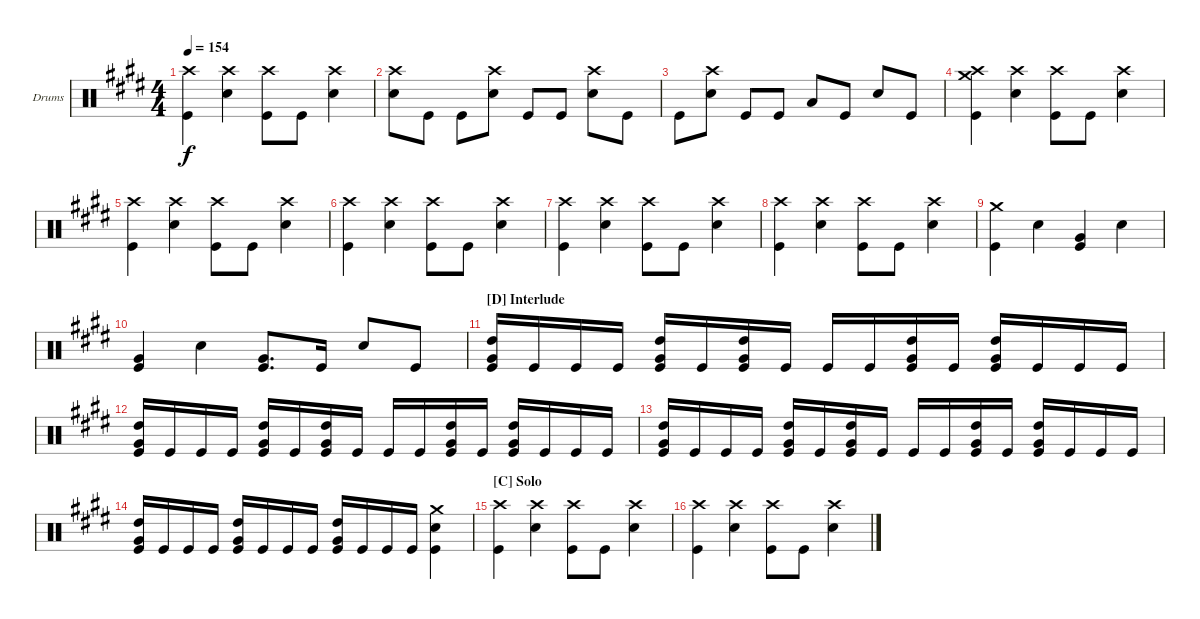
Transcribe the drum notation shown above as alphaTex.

\defaultSystemsLayout 4
\bracketExtendMode groupsimilarinstruments
\firstSystemTrackNameOrientation horizontal
\otherSystemsTrackNameOrientation horizontal
\track ("Jon Larsen" "Drums") {instrument percussion}
\staff {score}
\articulation defaults
\ts (4 4)
\tempo 154
\clef neutral
\scale
0.333333
\ks e
("Crash high (hit)" "Kick (hit)").4{dy f} ("Crash high (hit)" "Snare (hit) 2").4 ("Crash high (hit)" "Kick (hit)").8 "Kick (hit)".8 ("Crash high (hit)" "Snare (hit) 2").4 |
\scale
0.333333 ("Crash high (hit)" "Snare (hit) 2").8 "Kick (hit)".8 "Kick (hit)".8 ("Crash high (hit)" "Snare (hit) 2").8 "Kick (hit)".8 "Kick (hit)".8 ("Crash high (hit)" "Snare (hit) 2").8 "Kick (hit)".8 |
\scale
0.333333 "Kick (hit)".8 ("Crash high (hit)" "Snare (hit) 2").8 "Kick (hit)".8 "Kick (hit)".8 "Low Tom (hit)".8 "Kick (hit)".8 "Snare (hit) 2".8 "Kick (hit)".8 |
\scale
0.333333 ("Crash medium (hit)" "Crash high (hit)" "Kick (hit)").4 ("Crash high (hit)" "Snare (hit) 2").4 ("Crash high (hit)" "Kick (hit)").8 "Kick (hit)".8 ("Crash high (hit)" "Snare (hit) 2").4 |
\scale
0.333333 ("Crash high (hit)" "Kick (hit)").4 ("Crash high (hit)" "Snare (hit) 2").4 ("Crash high (hit)" "Kick (hit)").8 "Kick (hit)".8 ("Crash high (hit)" "Snare (hit) 2").4 |
\scale
0.333333 ("Crash high (hit)" "Kick (hit)").4 ("Crash high (hit)" "Snare (hit) 2").4 ("Crash high (hit)" "Kick (hit)").8 "Kick (hit)".8 ("Crash high (hit)" "Snare (hit) 2").4 |
\scale
0.333333 ("Crash high (hit)" "Kick (hit)").4 ("Crash high (hit)" "Snare (hit) 2").4 ("Crash high (hit)" "Kick (hit)").8 "Kick (hit)".8 ("Crash high (hit)" "Snare (hit) 2").4 |
\scale
0.333333 ("Crash high (hit)" "Kick (hit)").4 ("Crash high (hit)" "Snare (hit) 2").4 ("Crash high (hit)" "Kick (hit)").8 "Kick (hit)".8 ("Crash high (hit)" "Snare (hit) 2").4 |
\scale
0.333333 ("Crash medium (hit)" "Kick (hit)").4 "Snare (hit) 2".4 ("Very Low Tom (hit)" "Kick (hit)").4 "Snare (hit) 2".4 |
\scale
0.333333 ("Very Low Tom (hit)" "Kick (hit)").4 "Snare (hit) 2".4 ("Very Low Tom (hit)" "Kick (hit)").8{d} "Kick (hit)".16 "Snare (hit) 2".8 "Kick (hit)".8 |
\section ("D" "Interlude")
\scale
0.333333 ("High Tom (hit)" "Very Low Tom (hit)" "Kick (hit)").16 "Kick (hit)".16 "Kick (hit)".16 "Kick (hit)".16 ("High Tom (hit)" "Very Low Tom (hit)" "Kick (hit)").16 "Kick (hit)".16 ("High Tom (hit)" "Very Low Tom (hit)" "Kick (hit)").16 "Kick (hit)".16 "Kick (hit)".16 "Kick (hit)".16 ("High Tom (hit)" "Very Low Tom (hit)" "Kick (hit)").16 "Kick (hit)".16 ("High Tom (hit)" "Very Low Tom (hit)" "Kick (hit)").16 "Kick (hit)".16 "Kick (hit)".16 "Kick (hit)".16 |
\scale
0.333333 ("High Tom (hit)" "Very Low Tom (hit)" "Kick (hit)").16 "Kick (hit)".16 "Kick (hit)".16 "Kick (hit)".16 ("High Tom (hit)" "Very Low Tom (hit)" "Kick (hit)").16 "Kick (hit)".16 ("High Tom (hit)" "Very Low Tom (hit)" "Kick (hit)").16 "Kick (hit)".16 "Kick (hit)".16 "Kick (hit)".16 ("High Tom (hit)" "Very Low Tom (hit)" "Kick (hit)").16 "Kick (hit)".16 ("High Tom (hit)" "Very Low Tom (hit)" "Kick (hit)").16 "Kick (hit)".16 "Kick (hit)".16 "Kick (hit)".16 |
\scale
0.333333 ("High Tom (hit)" "Very Low Tom (hit)" "Kick (hit)").16 "Kick (hit)".16 "Kick (hit)".16 "Kick (hit)".16 ("High Tom (hit)" "Very Low Tom (hit)" "Kick (hit)").16 "Kick (hit)".16 ("High Tom (hit)" "Very Low Tom (hit)" "Kick (hit)").16 "Kick (hit)".16 "Kick (hit)".16 "Kick (hit)".16 ("High Tom (hit)" "Very Low Tom (hit)" "Kick (hit)").16 "Kick (hit)".16 ("High Tom (hit)" "Very Low Tom (hit)" "Kick (hit)").16 "Kick (hit)".16 "Kick (hit)".16 "Kick (hit)".16 |
\scale
0.333333 ("High Tom (hit)" "Very Low Tom (hit)" "Kick (hit)").16 "Kick (hit)".16 "Kick (hit)".16 "Kick (hit)".16 ("High Tom (hit)" "Very Low Tom (hit)" "Kick (hit)").16 "Kick (hit)".16 "Kick (hit)".16 "Kick (hit)".16 ("High Tom (hit)" "Very Low Tom (hit)" "Kick (hit)").16 "Kick (hit)".16 "Kick (hit)".16 "Kick (hit)".16 ("Crash medium (hit)" "Snare (hit) 2" "Kick (hit)").4 |
\section ("C" "Solo")
\scale
0.333333 ("Crash high (hit)" "Kick (hit)").4 ("Crash high (hit)" "Snare (hit) 2").4 ("Crash high (hit)" "Kick (hit)").8 "Kick (hit)".8 ("Crash high (hit)" "Snare (hit) 2").4 |
\scale
0.333333 ("Crash high (hit)" "Kick (hit)").4 ("Crash high (hit)" "Snare (hit) 2").4 ("Crash high (hit)" "Kick (hit)").8 "Kick (hit)".8 ("Crash high (hit)" "Snare (hit) 2").4
